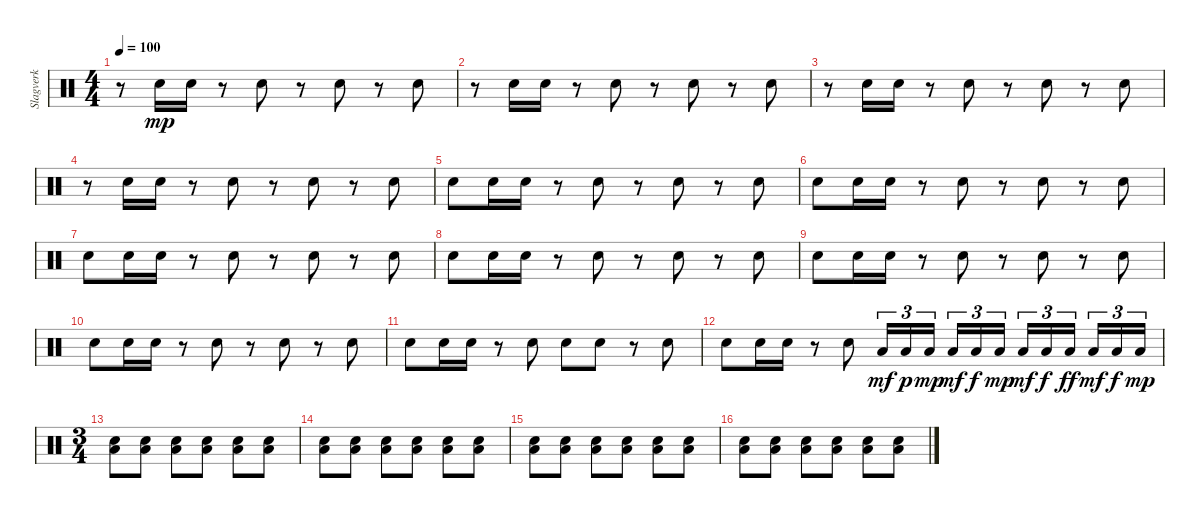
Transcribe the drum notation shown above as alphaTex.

\track ("Slagverk" "Slagverk") {instrument percussion}
\staff {score}
\articulation defaults
\ts (4 4)
\tempo 100
\clef neutral
\ks c
r.8{dy mp} "Snare (hit) 2".16 "Snare (hit) 2".16 r.8 "Snare (hit) 2".8 r.8 "Snare (hit) 2".8 r.8 "Snare (hit) 2".8 |
r.8 "Snare (hit) 2".16 "Snare (hit) 2".16 r.8 "Snare (hit) 2".8 r.8 "Snare (hit) 2".8 r.8 "Snare (hit) 2".8 |
r.8 "Snare (hit) 2".16 "Snare (hit) 2".16 r.8 "Snare (hit) 2".8 r.8 "Snare (hit) 2".8 r.8 "Snare (hit) 2".8 |
r.8 "Snare (hit) 2".16 "Snare (hit) 2".16 r.8 "Snare (hit) 2".8 r.8 "Snare (hit) 2".8 r.8 "Snare (hit) 2".8 |
"Snare (hit) 2".8 "Snare (hit) 2".16 "Snare (hit) 2".16 r.8 "Snare (hit) 2".8 r.8 "Snare (hit) 2".8 r.8 "Snare (hit) 2".8 |
"Snare (hit) 2".8 "Snare (hit) 2".16 "Snare (hit) 2".16 r.8 "Snare (hit) 2".8 r.8 "Snare (hit) 2".8 r.8 "Snare (hit) 2".8 |
"Snare (hit) 2".8 "Snare (hit) 2".16 "Snare (hit) 2".16 r.8 "Snare (hit) 2".8 r.8 "Snare (hit) 2".8 r.8 "Snare (hit) 2".8 |
"Snare (hit) 2".8 "Snare (hit) 2".16 "Snare (hit) 2".16 r.8 "Snare (hit) 2".8 r.8 "Snare (hit) 2".8 r.8 "Snare (hit) 2".8 |
"Snare (hit) 2".8 "Snare (hit) 2".16 "Snare (hit) 2".16 r.8 "Snare (hit) 2".8 r.8 "Snare (hit) 2".8 r.8 "Snare (hit) 2".8 |
"Snare (hit) 2".8 "Snare (hit) 2".16 "Snare (hit) 2".16 r.8 "Snare (hit) 2".8 r.8 "Snare (hit) 2".8 r.8 "Snare (hit) 2".8 |
"Snare (hit) 2".8 "Snare (hit) 2".16 "Snare (hit) 2".16 r.8 "Snare (hit) 2".8 "Snare (hit) 2".8 "Snare (hit) 2".8 r.8 "Snare (hit) 2".8 |
"Snare (hit) 2".8 "Snare (hit) 2".16 "Snare (hit) 2".16 r.8 "Snare (hit) 2".8 "Low Floor Tom (hit)".16{tu (3 2) dy mf} "Low Floor Tom (hit)".16{tu (3 2) dy p} "Low Floor Tom (hit)".16{tu (3 2) dy mp} "Low Floor Tom (hit)".16{tu (3 2) dy mf} "Low Floor Tom (hit)".16{tu (3 2) dy f} "Low Floor Tom (hit)".16{tu (3 2) dy mp} "Low Floor Tom (hit)".16{tu (3 2) dy mf} "Low Floor Tom (hit)".16{tu (3 2) dy f} "Low Floor Tom (hit)".16{tu (3 2) dy ff} "Low Floor Tom (hit)".16{tu (3 2) dy mf} "Low Floor Tom (hit)".16{tu (3 2) dy f} "Low Floor Tom (hit)".16{tu (3 2) dy mp} |
\ts (3 4)
("Snare (hit) 2" "Low Floor Tom (hit)").8 ("Snare (hit) 2" "Low Floor Tom (hit)").8 ("Snare (hit) 2" "Low Floor Tom (hit)").8 ("Snare (hit) 2" "Low Floor Tom (hit)").8 ("Snare (hit) 2" "Low Floor Tom (hit)").8 ("Snare (hit) 2" "Low Floor Tom (hit)").8 |
("Snare (hit) 2" "Low Floor Tom (hit)").8 ("Snare (hit) 2" "Low Floor Tom (hit)").8 ("Snare (hit) 2" "Low Floor Tom (hit)").8 ("Snare (hit) 2" "Low Floor Tom (hit)").8 ("Snare (hit) 2" "Low Floor Tom (hit)").8 ("Snare (hit) 2" "Low Floor Tom (hit)").8 |
("Snare (hit) 2" "Low Floor Tom (hit)").8 ("Snare (hit) 2" "Low Floor Tom (hit)").8 ("Snare (hit) 2" "Low Floor Tom (hit)").8 ("Snare (hit) 2" "Low Floor Tom (hit)").8 ("Snare (hit) 2" "Low Floor Tom (hit)").8 ("Snare (hit) 2" "Low Floor Tom (hit)").8 |
("Snare (hit) 2" "Low Floor Tom (hit)").8 ("Snare (hit) 2" "Low Floor Tom (hit)").8 ("Snare (hit) 2" "Low Floor Tom (hit)").8 ("Snare (hit) 2" "Low Floor Tom (hit)").8 ("Snare (hit) 2" "Low Floor Tom (hit)").8 ("Snare (hit) 2" "Low Floor Tom (hit)").8
